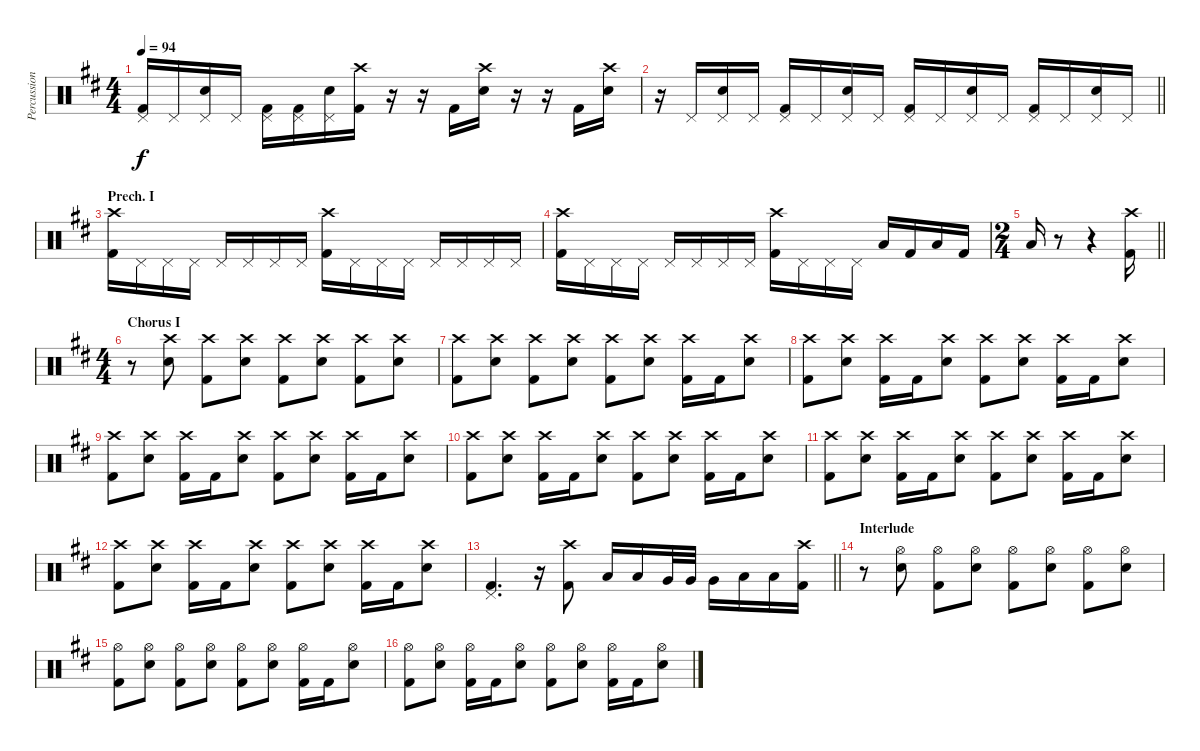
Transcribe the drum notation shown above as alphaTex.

\track ("Percussion" "Percussion") {instrument percussion}
\staff {score}
\articulation defaults
\ts (4 4)
\tempo 94
\clef neutral
\ks bminor
("Pedal Hi-Hat (hit)" "Kick (hit) 2").16{dy f} "Pedal Hi-Hat (hit)".16 ("Pedal Hi-Hat (hit)" "Electric Snare (hit)").16 "Pedal Hi-Hat (hit)".16 ("Pedal Hi-Hat (hit)" "Kick (hit) 2").16 ("Pedal Hi-Hat (hit)" "Kick (hit) 2").16 ("Pedal Hi-Hat (hit)" "Electric Snare (hit)").16 ("Crash high (hit)" "Kick (hit) 2").16 r.16 r.16 "Kick (hit) 2".16 ("Crash high (hit)" "Electric Snare (hit)").16 r.16 r.16 "Kick (hit) 2".16 ("Crash high (hit)" "Electric Snare (hit)").16 |
\barLineRight lightlight
r.16 "Pedal Hi-Hat (hit)".16 ("Pedal Hi-Hat (hit)" "Electric Snare (hit)").16 "Pedal Hi-Hat (hit)".16 ("Pedal Hi-Hat (hit)" "Kick (hit) 2").16 "Pedal Hi-Hat (hit)".16 ("Pedal Hi-Hat (hit)" "Electric Snare (hit)").16 "Pedal Hi-Hat (hit)".16 ("Pedal Hi-Hat (hit)" "Kick (hit) 2").16 "Pedal Hi-Hat (hit)".16 ("Pedal Hi-Hat (hit)" "Electric Snare (hit)").16 "Pedal Hi-Hat (hit)".16 ("Pedal Hi-Hat (hit)" "Kick (hit) 2").16 "Pedal Hi-Hat (hit)".16 ("Pedal Hi-Hat (hit)" "Electric Snare (hit)").16 "Pedal Hi-Hat (hit)".16 |
\section ("" "Prech. I")
("Crash high (hit)" "Kick (hit) 2").16 "Pedal Hi-Hat (hit)".16 "Pedal Hi-Hat (hit)".16 "Pedal Hi-Hat (hit)".16 "Pedal Hi-Hat (hit)".16 "Pedal Hi-Hat (hit)".16 "Pedal Hi-Hat (hit)".16 "Pedal Hi-Hat (hit)".16 ("Crash high (hit)" "Kick (hit) 2").16 "Pedal Hi-Hat (hit)".16 "Pedal Hi-Hat (hit)".16 "Pedal Hi-Hat (hit)".16 "Pedal Hi-Hat (hit)".16 "Pedal Hi-Hat (hit)".16 "Pedal Hi-Hat (hit)".16 "Pedal Hi-Hat (hit)".16 |
("Crash high (hit)" "Kick (hit) 2").16 "Pedal Hi-Hat (hit)".16 "Pedal Hi-Hat (hit)".16 "Pedal Hi-Hat (hit)".16 "Pedal Hi-Hat (hit)".16 "Pedal Hi-Hat (hit)".16 "Pedal Hi-Hat (hit)".16 "Pedal Hi-Hat (hit)".16 ("Crash high (hit)" "Kick (hit) 2").16 "Pedal Hi-Hat (hit)".16 "Pedal Hi-Hat (hit)".16 "Pedal Hi-Hat (hit)".16 "Low Floor Tom (hit)".16 "Kick (hit) 2".16 "Low Floor Tom (hit)".16 "Kick (hit) 2".16 |
\ts (2 4)
\barLineRight lightlight "Low Floor Tom (hit)".16
r.8 r.4 ("Crash high (hit)" "Kick (hit) 2").16 |
\ts (4 4)
\section ("" "Chorus I")
r.8 ("Crash high (hit)" "Electric Snare (hit)").8 ("Crash high (hit)" "Kick (hit) 2").8 ("Crash high (hit)" "Electric Snare (hit)").8 ("Crash high (hit)" "Kick (hit) 2").8 ("Crash high (hit)" "Electric Snare (hit)").8 ("Crash high (hit)" "Kick (hit) 2").8 ("Crash high (hit)" "Electric Snare (hit)").8 |
("Crash high (hit)" "Kick (hit) 2").8 ("Crash high (hit)" "Electric Snare (hit)").8 ("Crash high (hit)" "Kick (hit) 2").8 ("Crash high (hit)" "Electric Snare (hit)").8 ("Crash high (hit)" "Kick (hit) 2").8 ("Crash high (hit)" "Electric Snare (hit)").8 ("Crash high (hit)" "Kick (hit) 2").16 "Kick (hit) 2".16 ("Crash high (hit)" "Electric Snare (hit)").8 |
("Crash high (hit)" "Kick (hit) 2").8 ("Crash high (hit)" "Electric Snare (hit)").8 ("Crash high (hit)" "Kick (hit) 2").16 "Kick (hit) 2".16 ("Crash high (hit)" "Electric Snare (hit)").8 ("Crash high (hit)" "Kick (hit) 2").8 ("Crash high (hit)" "Electric Snare (hit)").8 ("Crash high (hit)" "Kick (hit) 2").16 "Kick (hit) 2".16 ("Crash high (hit)" "Electric Snare (hit)").8 |
("Crash high (hit)" "Kick (hit) 2").8 ("Crash high (hit)" "Electric Snare (hit)").8 ("Crash high (hit)" "Kick (hit) 2").16 "Kick (hit) 2".16 ("Crash high (hit)" "Electric Snare (hit)").8 ("Crash high (hit)" "Kick (hit) 2").8 ("Crash high (hit)" "Electric Snare (hit)").8 ("Crash high (hit)" "Kick (hit) 2").16 "Kick (hit) 2".16 ("Crash high (hit)" "Electric Snare (hit)").8 |
("Crash high (hit)" "Kick (hit) 2").8 ("Crash high (hit)" "Electric Snare (hit)").8 ("Crash high (hit)" "Kick (hit) 2").16 "Kick (hit) 2".16 ("Crash high (hit)" "Electric Snare (hit)").8 ("Crash high (hit)" "Kick (hit) 2").8 ("Crash high (hit)" "Electric Snare (hit)").8 ("Crash high (hit)" "Kick (hit) 2").16 "Kick (hit) 2".16 ("Crash high (hit)" "Electric Snare (hit)").8 |
("Crash high (hit)" "Kick (hit) 2").8 ("Crash high (hit)" "Electric Snare (hit)").8 ("Crash high (hit)" "Kick (hit) 2").16 "Kick (hit) 2".16 ("Crash high (hit)" "Electric Snare (hit)").8 ("Crash high (hit)" "Kick (hit) 2").8 ("Crash high (hit)" "Electric Snare (hit)").8 ("Crash high (hit)" "Kick (hit) 2").16 "Kick (hit) 2".16 ("Crash high (hit)" "Electric Snare (hit)").8 |
("Crash high (hit)" "Kick (hit) 2").8 ("Crash high (hit)" "Electric Snare (hit)").8 ("Crash high (hit)" "Kick (hit) 2").16 "Kick (hit) 2".16 ("Crash high (hit)" "Electric Snare (hit)").8 ("Crash high (hit)" "Kick (hit) 2").8 ("Crash high (hit)" "Electric Snare (hit)").8 ("Crash high (hit)" "Kick (hit) 2").16 "Kick (hit) 2".16 ("Crash high (hit)" "Electric Snare (hit)").8 |
\barLineRight lightlight
("Pedal Hi-Hat (hit)" "Kick (hit) 2").4{d} r.16 ("Crash high (hit)" "Kick (hit) 2").8 "Low Tom (hit)".16 "Low Tom (hit)".16 "Very Low Tom (hit)".32 "Very Low Tom (hit)".32 "Very Low Tom (hit)".16 "Low Floor Tom (hit)".16 "Low Floor Tom (hit)".16 ("Crash high (hit)" "Kick (hit) 2").16 |
\section ("" "Interlude")
r.8 ("Hi-Hat (open)" "Electric Snare (hit)").8 ("Hi-Hat (open)" "Kick (hit) 2").8 ("Hi-Hat (open)" "Electric Snare (hit)").8 ("Hi-Hat (open)" "Kick (hit) 2").8 ("Hi-Hat (open)" "Electric Snare (hit)").8 ("Hi-Hat (open)" "Kick (hit) 2").8 ("Hi-Hat (open)" "Electric Snare (hit)").8 |
("Hi-Hat (open)" "Kick (hit) 2").8 ("Hi-Hat (open)" "Electric Snare (hit)").8 ("Hi-Hat (open)" "Kick (hit) 2").8 ("Hi-Hat (open)" "Electric Snare (hit)").8 ("Hi-Hat (open)" "Kick (hit) 2").8 ("Hi-Hat (open)" "Electric Snare (hit)").8 ("Hi-Hat (open)" "Kick (hit) 2").16 "Kick (hit) 2".16 ("Hi-Hat (open)" "Electric Snare (hit)").8 |
("Hi-Hat (open)" "Kick (hit) 2").8 ("Hi-Hat (open)" "Electric Snare (hit)").8 ("Hi-Hat (open)" "Kick (hit) 2").16 "Kick (hit) 2".16 ("Hi-Hat (open)" "Electric Snare (hit)").8 ("Hi-Hat (open)" "Kick (hit) 2").8 ("Hi-Hat (open)" "Electric Snare (hit)").8 ("Hi-Hat (open)" "Kick (hit) 2").16 "Kick (hit) 2".16 ("Hi-Hat (open)" "Electric Snare (hit)").8
